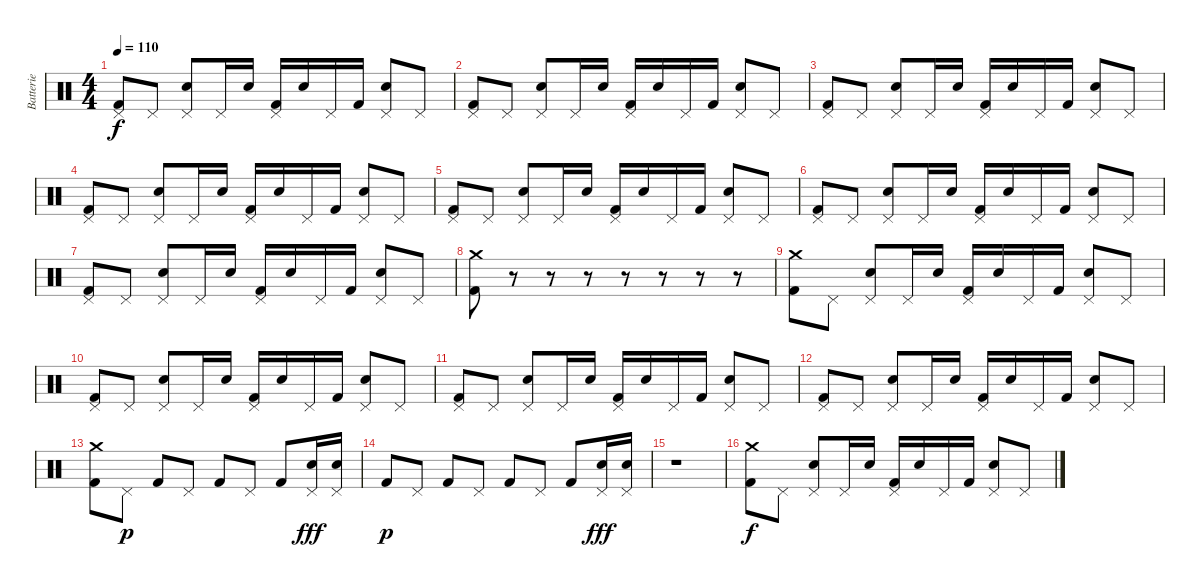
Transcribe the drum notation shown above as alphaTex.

\track ("Batterie" "Batterie") {instrument percussion}
\staff {score}
\articulation defaults
\ts (4 4)
\tempo 110
\clef neutral
\ks c
("Pedal Hi-Hat (hit)" "Kick (hit) 2").8{dy f} "Pedal Hi-Hat (hit)".8 ("Pedal Hi-Hat (hit)" "Electric Snare (hit)").8 "Pedal Hi-Hat (hit)".16 "Electric Snare (hit)".16 ("Pedal Hi-Hat (hit)" "Kick (hit) 2").16 "Electric Snare (hit)".16 "Pedal Hi-Hat (hit)".16 "Kick (hit) 2".16 ("Pedal Hi-Hat (hit)" "Electric Snare (hit)").8 "Pedal Hi-Hat (hit)".8 |
("Pedal Hi-Hat (hit)" "Kick (hit) 2").8 "Pedal Hi-Hat (hit)".8 ("Pedal Hi-Hat (hit)" "Electric Snare (hit)").8 "Pedal Hi-Hat (hit)".16 "Electric Snare (hit)".16 ("Pedal Hi-Hat (hit)" "Kick (hit) 2").16 "Electric Snare (hit)".16 "Pedal Hi-Hat (hit)".16 "Kick (hit) 2".16 ("Pedal Hi-Hat (hit)" "Electric Snare (hit)").8 "Pedal Hi-Hat (hit)".8 |
("Pedal Hi-Hat (hit)" "Kick (hit) 2").8 "Pedal Hi-Hat (hit)".8 ("Pedal Hi-Hat (hit)" "Electric Snare (hit)").8 "Pedal Hi-Hat (hit)".16 "Electric Snare (hit)".16 ("Pedal Hi-Hat (hit)" "Kick (hit) 2").16 "Electric Snare (hit)".16 "Pedal Hi-Hat (hit)".16 "Kick (hit) 2".16 ("Pedal Hi-Hat (hit)" "Electric Snare (hit)").8 "Pedal Hi-Hat (hit)".8 |
("Pedal Hi-Hat (hit)" "Kick (hit) 2").8 "Pedal Hi-Hat (hit)".8 ("Pedal Hi-Hat (hit)" "Electric Snare (hit)").8 "Pedal Hi-Hat (hit)".16 "Electric Snare (hit)".16 ("Pedal Hi-Hat (hit)" "Kick (hit) 2").16 "Electric Snare (hit)".16 "Pedal Hi-Hat (hit)".16 "Kick (hit) 2".16 ("Pedal Hi-Hat (hit)" "Electric Snare (hit)").8 "Pedal Hi-Hat (hit)".8 |
("Pedal Hi-Hat (hit)" "Kick (hit) 2").8 "Pedal Hi-Hat (hit)".8 ("Pedal Hi-Hat (hit)" "Electric Snare (hit)").8 "Pedal Hi-Hat (hit)".16 "Electric Snare (hit)".16 ("Pedal Hi-Hat (hit)" "Kick (hit) 2").16 "Electric Snare (hit)".16 "Pedal Hi-Hat (hit)".16 "Kick (hit) 2".16 ("Pedal Hi-Hat (hit)" "Electric Snare (hit)").8 "Pedal Hi-Hat (hit)".8 |
("Pedal Hi-Hat (hit)" "Kick (hit) 2").8 "Pedal Hi-Hat (hit)".8 ("Pedal Hi-Hat (hit)" "Electric Snare (hit)").8 "Pedal Hi-Hat (hit)".16 "Electric Snare (hit)".16 ("Pedal Hi-Hat (hit)" "Kick (hit) 2").16 "Electric Snare (hit)".16 "Pedal Hi-Hat (hit)".16 "Kick (hit) 2".16 ("Pedal Hi-Hat (hit)" "Electric Snare (hit)").8 "Pedal Hi-Hat (hit)".8 |
("Pedal Hi-Hat (hit)" "Kick (hit) 2").8 "Pedal Hi-Hat (hit)".8 ("Pedal Hi-Hat (hit)" "Electric Snare (hit)").8 "Pedal Hi-Hat (hit)".16 "Electric Snare (hit)".16 ("Pedal Hi-Hat (hit)" "Kick (hit) 2").16 "Electric Snare (hit)".16 "Pedal Hi-Hat (hit)".16 "Kick (hit) 2".16 ("Pedal Hi-Hat (hit)" "Electric Snare (hit)").8 "Pedal Hi-Hat (hit)".8 |
("Crash medium (hit)" "Kick (hit) 2").8 r.8 r.8 r.8 r.8 r.8 r.8 r.8 |
("Crash medium (hit)" "Kick (hit) 2").8 "Pedal Hi-Hat (hit)".8 ("Pedal Hi-Hat (hit)" "Electric Snare (hit)").8 "Pedal Hi-Hat (hit)".16 "Electric Snare (hit)".16 ("Pedal Hi-Hat (hit)" "Kick (hit) 2").16 "Electric Snare (hit)".16 "Pedal Hi-Hat (hit)".16 "Kick (hit) 2".16 ("Pedal Hi-Hat (hit)" "Electric Snare (hit)").8 "Pedal Hi-Hat (hit)".8 |
("Pedal Hi-Hat (hit)" "Kick (hit) 2").8 "Pedal Hi-Hat (hit)".8 ("Pedal Hi-Hat (hit)" "Electric Snare (hit)").8 "Pedal Hi-Hat (hit)".16 "Electric Snare (hit)".16 ("Pedal Hi-Hat (hit)" "Kick (hit) 2").16 "Electric Snare (hit)".16 "Pedal Hi-Hat (hit)".16 "Kick (hit) 2".16 ("Pedal Hi-Hat (hit)" "Electric Snare (hit)").8 "Pedal Hi-Hat (hit)".8 |
("Pedal Hi-Hat (hit)" "Kick (hit) 2").8 "Pedal Hi-Hat (hit)".8 ("Pedal Hi-Hat (hit)" "Electric Snare (hit)").8 "Pedal Hi-Hat (hit)".16 "Electric Snare (hit)".16 ("Pedal Hi-Hat (hit)" "Kick (hit) 2").16 "Electric Snare (hit)".16 "Pedal Hi-Hat (hit)".16 "Kick (hit) 2".16 ("Pedal Hi-Hat (hit)" "Electric Snare (hit)").8 "Pedal Hi-Hat (hit)".8 |
("Pedal Hi-Hat (hit)" "Kick (hit) 2").8 "Pedal Hi-Hat (hit)".8 ("Pedal Hi-Hat (hit)" "Electric Snare (hit)").8 "Pedal Hi-Hat (hit)".16 "Electric Snare (hit)".16 ("Pedal Hi-Hat (hit)" "Kick (hit) 2").16 "Electric Snare (hit)".16 "Pedal Hi-Hat (hit)".16 "Kick (hit) 2".16 ("Pedal Hi-Hat (hit)" "Electric Snare (hit)").8 "Pedal Hi-Hat (hit)".8 |
("Crash medium (hit)" "Kick (hit) 2").8 "Pedal Hi-Hat (hit)".8{dy p} "Kick (hit) 2".8 "Pedal Hi-Hat (hit)".8 "Kick (hit) 2".8 "Pedal Hi-Hat (hit)".8 "Kick (hit) 2".8 ("Pedal Hi-Hat (hit)" "Electric Snare (hit)").16{dy fff} ("Pedal Hi-Hat (hit)" "Electric Snare (hit)").16 |
"Kick (hit) 2".8{dy p} "Pedal Hi-Hat (hit)".8 "Kick (hit) 2".8 "Pedal Hi-Hat (hit)".8 "Kick (hit) 2".8 "Pedal Hi-Hat (hit)".8 "Kick (hit) 2".8 ("Pedal Hi-Hat (hit)" "Electric Snare (hit)").16{dy fff} ("Pedal Hi-Hat (hit)" "Electric Snare (hit)").16 |
r.1 |
("Crash medium (hit)" "Kick (hit) 2").8{dy f} "Pedal Hi-Hat (hit)".8 ("Pedal Hi-Hat (hit)" "Electric Snare (hit)").8 "Pedal Hi-Hat (hit)".16 "Electric Snare (hit)".16 ("Pedal Hi-Hat (hit)" "Kick (hit) 2").16 "Electric Snare (hit)".16 "Pedal Hi-Hat (hit)".16 "Kick (hit) 2".16 ("Pedal Hi-Hat (hit)" "Electric Snare (hit)").8 "Pedal Hi-Hat (hit)".8
